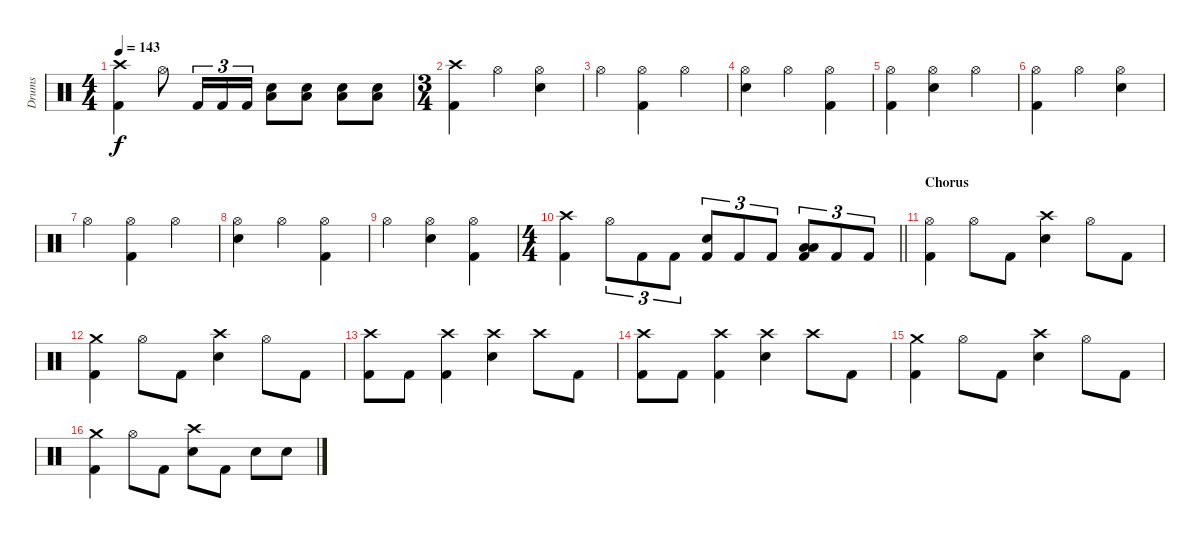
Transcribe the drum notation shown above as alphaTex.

\track ("Drums" "Drums") {instrument percussion}
\staff {score}
\articulation defaults
\ts (4 4)
\tempo 143
\clef neutral
\ks c
("Crash high (hit)" "Kick (hit) 2").4{dy f} "Hi-Hat (open)".8 "Kick (hit) 2".16{tu (3 2)} "Kick (hit) 2".16{tu (3 2)} "Kick (hit) 2".16{tu (3 2)} ("Electric Snare (hit)" "Low Floor Tom (hit)").8 ("Electric Snare (hit)" "Low Floor Tom (hit)").8 ("Electric Snare (hit)" "Low Floor Tom (hit)").8 ("Electric Snare (hit)" "Low Floor Tom (hit)").8 |
\ts (3 4)
("Crash high (hit)" "Kick (hit) 2").4 "Hi-Hat (open)".4 ("Hi-Hat (open)" "Electric Snare (hit)").4 |
"Hi-Hat (open)".4 ("Hi-Hat (open)" "Kick (hit) 2").4 "Hi-Hat (open)".4 |
("Hi-Hat (open)" "Electric Snare (hit)").4 "Hi-Hat (open)".4 ("Hi-Hat (open)" "Kick (hit) 2").4 |
("Hi-Hat (open)" "Kick (hit) 2").4 ("Hi-Hat (open)" "Electric Snare (hit)").4 "Hi-Hat (open)".4 |
("Hi-Hat (open)" "Kick (hit) 2").4 "Hi-Hat (open)".4 ("Hi-Hat (open)" "Electric Snare (hit)").4 |
"Hi-Hat (open)".4 ("Hi-Hat (open)" "Kick (hit) 2").4 "Hi-Hat (open)".4 |
("Hi-Hat (open)" "Electric Snare (hit)").4 "Hi-Hat (open)".4 ("Hi-Hat (open)" "Kick (hit) 2").4 |
"Hi-Hat (open)".4 ("Hi-Hat (open)" "Electric Snare (hit)").4 ("Hi-Hat (open)" "Kick (hit) 2").4 |
\ts (4 4)
\barLineRight lightlight
("Crash high (hit)" "Kick (hit) 2").4 "Hi-Hat (open)".8{tu (3 2)} "Kick (hit) 2".8{tu (3 2)} "Kick (hit) 2".8{tu (3 2)} ("Electric Snare (hit)" "Kick (hit) 2").8{tu (3 2)} "Kick (hit) 2".8{tu (3 2)} "Kick (hit) 2".8{tu (3 2)} ("Low Floor Tom (hit)" "Kick (hit) 2" "Low Tom (hit)").8{tu (3 2)} "Kick (hit) 2".8{tu (3 2)} "Kick (hit) 2".8{tu (3 2)} |
\section ("" "Chorus")
("Hi-Hat (open)" "Kick (hit) 2").4 "Hi-Hat (open)".8 "Kick (hit) 2".8 ("Crash high (hit)" "Electric Snare (hit)").4 "Hi-Hat (open)".8 "Kick (hit) 2".8 |
("Crash medium (hit)" "Kick (hit) 2").4 "Hi-Hat (open)".8 "Kick (hit) 2".8 ("Crash high (hit)" "Electric Snare (hit)").4 "Hi-Hat (open)".8 "Kick (hit) 2".8 |
("Crash high (hit)" "Kick (hit) 2").8 "Kick (hit) 2".8 ("Crash high (hit)" "Kick (hit) 2").4 ("Crash high (hit)" "Electric Snare (hit)").4 "Crash high (hit)".8 "Kick (hit) 2".8 |
("Crash high (hit)" "Kick (hit) 2").8 "Kick (hit) 2".8 ("Crash high (hit)" "Kick (hit) 2").4 ("Crash high (hit)" "Electric Snare (hit)").4 "Crash high (hit)".8 "Kick (hit) 2".8 |
("Crash medium (hit)" "Kick (hit) 2").4 "Hi-Hat (open)".8 "Kick (hit) 2".8 ("Crash high (hit)" "Electric Snare (hit)").4 "Hi-Hat (open)".8 "Kick (hit) 2".8 |
("Crash medium (hit)" "Kick (hit) 2").4 "Hi-Hat (open)".8 "Kick (hit) 2".8 ("Crash high (hit)" "Electric Snare (hit)").8 "Kick (hit) 2".8 "Electric Snare (hit)".8 "Electric Snare (hit)".8
